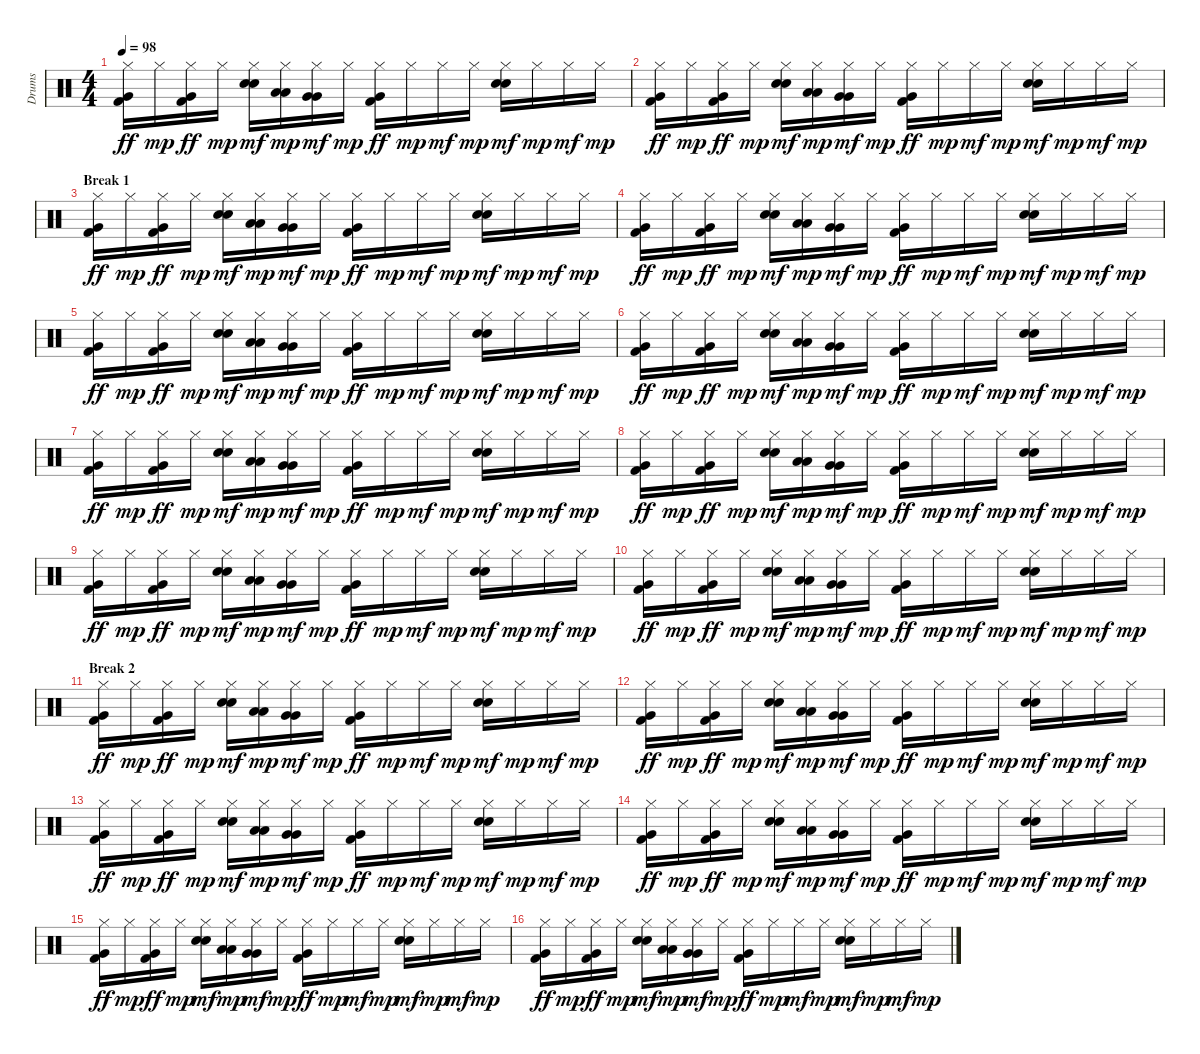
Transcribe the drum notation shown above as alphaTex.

\track ("Drums" "Drums") {instrument percussion}
\staff {score}
\articulation defaults
\ts (4 4)
\tempo 98
\clef neutral
\ks c
("Hi-Hat (closed)" "Very Low Tom (hit)" "Kick (hit) 2").16{dy ff} "Hi-Hat (closed)".16{dy mp} ("Hi-Hat (closed)" "Very Low Tom (hit)" "Kick (hit) 2").16{dy ff} "Hi-Hat (closed)".16{dy mp} ("Hi-Hat (closed)" "Electric Snare (hit)" "Snare (hit) 2").16{dy mf} ("Hi-Hat (closed)" "Low Tom (hit)" "Low Tom (hit)").16{dy mp} ("Hi-Hat (closed)" "Very Low Tom (hit)" "Very Low Tom (hit)").16{dy mf} "Hi-Hat (closed)".16{dy mp} ("Hi-Hat (closed)" "Very Low Tom (hit)" "Kick (hit) 2").16{dy ff} "Hi-Hat (closed)".16{dy mp} "Hi-Hat (closed)".16{dy mf} "Hi-Hat (closed)".16{dy mp} ("Hi-Hat (closed)" "Electric Snare (hit)" "Snare (hit) 2").16{dy mf} "Hi-Hat (closed)".16{dy mp} "Hi-Hat (closed)".16{dy mf} "Hi-Hat (closed)".16{dy mp} |
("Hi-Hat (closed)" "Very Low Tom (hit)" "Kick (hit) 2").16{dy ff} "Hi-Hat (closed)".16{dy mp} ("Hi-Hat (closed)" "Very Low Tom (hit)" "Kick (hit) 2").16{dy ff} "Hi-Hat (closed)".16{dy mp} ("Hi-Hat (closed)" "Electric Snare (hit)" "Snare (hit) 2").16{dy mf} ("Hi-Hat (closed)" "Low Tom (hit)" "Low Tom (hit)").16{dy mp} ("Hi-Hat (closed)" "Very Low Tom (hit)" "Very Low Tom (hit)").16{dy mf} "Hi-Hat (closed)".16{dy mp} ("Hi-Hat (closed)" "Very Low Tom (hit)" "Kick (hit) 2").16{dy ff} "Hi-Hat (closed)".16{dy mp} "Hi-Hat (closed)".16{dy mf} "Hi-Hat (closed)".16{dy mp} ("Hi-Hat (closed)" "Electric Snare (hit)" "Snare (hit) 2").16{dy mf} "Hi-Hat (closed)".16{dy mp} "Hi-Hat (closed)".16{dy mf} "Hi-Hat (closed)".16{dy mp} |
\section ("" "Break 1")
("Hi-Hat (closed)" "Very Low Tom (hit)" "Kick (hit) 2").16{dy ff} "Hi-Hat (closed)".16{dy mp} ("Hi-Hat (closed)" "Very Low Tom (hit)" "Kick (hit) 2").16{dy ff} "Hi-Hat (closed)".16{dy mp} ("Hi-Hat (closed)" "Electric Snare (hit)" "Snare (hit) 2").16{dy mf} ("Hi-Hat (closed)" "Low Tom (hit)" "Low Tom (hit)").16{dy mp} ("Hi-Hat (closed)" "Very Low Tom (hit)" "Very Low Tom (hit)").16{dy mf} "Hi-Hat (closed)".16{dy mp} ("Hi-Hat (closed)" "Very Low Tom (hit)" "Kick (hit) 2").16{dy ff} "Hi-Hat (closed)".16{dy mp} "Hi-Hat (closed)".16{dy mf} "Hi-Hat (closed)".16{dy mp} ("Hi-Hat (closed)" "Electric Snare (hit)" "Snare (hit) 2").16{dy mf} "Hi-Hat (closed)".16{dy mp} "Hi-Hat (closed)".16{dy mf} "Hi-Hat (closed)".16{dy mp} |
("Hi-Hat (closed)" "Very Low Tom (hit)" "Kick (hit) 2").16{dy ff} "Hi-Hat (closed)".16{dy mp} ("Hi-Hat (closed)" "Very Low Tom (hit)" "Kick (hit) 2").16{dy ff} "Hi-Hat (closed)".16{dy mp} ("Hi-Hat (closed)" "Electric Snare (hit)" "Snare (hit) 2").16{dy mf} ("Hi-Hat (closed)" "Low Tom (hit)" "Low Tom (hit)").16{dy mp} ("Hi-Hat (closed)" "Very Low Tom (hit)" "Very Low Tom (hit)").16{dy mf} "Hi-Hat (closed)".16{dy mp} ("Hi-Hat (closed)" "Very Low Tom (hit)" "Kick (hit) 2").16{dy ff} "Hi-Hat (closed)".16{dy mp} "Hi-Hat (closed)".16{dy mf} "Hi-Hat (closed)".16{dy mp} ("Hi-Hat (closed)" "Electric Snare (hit)" "Snare (hit) 2").16{dy mf} "Hi-Hat (closed)".16{dy mp} "Hi-Hat (closed)".16{dy mf} "Hi-Hat (closed)".16{dy mp} |
("Hi-Hat (closed)" "Very Low Tom (hit)" "Kick (hit) 2").16{dy ff} "Hi-Hat (closed)".16{dy mp} ("Hi-Hat (closed)" "Very Low Tom (hit)" "Kick (hit) 2").16{dy ff} "Hi-Hat (closed)".16{dy mp} ("Hi-Hat (closed)" "Electric Snare (hit)" "Snare (hit) 2").16{dy mf} ("Hi-Hat (closed)" "Low Tom (hit)" "Low Tom (hit)").16{dy mp} ("Hi-Hat (closed)" "Very Low Tom (hit)" "Very Low Tom (hit)").16{dy mf} "Hi-Hat (closed)".16{dy mp} ("Hi-Hat (closed)" "Very Low Tom (hit)" "Kick (hit) 2").16{dy ff} "Hi-Hat (closed)".16{dy mp} "Hi-Hat (closed)".16{dy mf} "Hi-Hat (closed)".16{dy mp} ("Hi-Hat (closed)" "Electric Snare (hit)" "Snare (hit) 2").16{dy mf} "Hi-Hat (closed)".16{dy mp} "Hi-Hat (closed)".16{dy mf} "Hi-Hat (closed)".16{dy mp} |
("Hi-Hat (closed)" "Very Low Tom (hit)" "Kick (hit) 2").16{dy ff} "Hi-Hat (closed)".16{dy mp} ("Hi-Hat (closed)" "Very Low Tom (hit)" "Kick (hit) 2").16{dy ff} "Hi-Hat (closed)".16{dy mp} ("Hi-Hat (closed)" "Electric Snare (hit)" "Snare (hit) 2").16{dy mf} ("Hi-Hat (closed)" "Low Tom (hit)" "Low Tom (hit)").16{dy mp} ("Hi-Hat (closed)" "Very Low Tom (hit)" "Very Low Tom (hit)").16{dy mf} "Hi-Hat (closed)".16{dy mp} ("Hi-Hat (closed)" "Very Low Tom (hit)" "Kick (hit) 2").16{dy ff} "Hi-Hat (closed)".16{dy mp} "Hi-Hat (closed)".16{dy mf} "Hi-Hat (closed)".16{dy mp} ("Hi-Hat (closed)" "Electric Snare (hit)" "Snare (hit) 2").16{dy mf} "Hi-Hat (closed)".16{dy mp} "Hi-Hat (closed)".16{dy mf} "Hi-Hat (closed)".16{dy mp} |
("Hi-Hat (closed)" "Very Low Tom (hit)" "Kick (hit) 2").16{dy ff} "Hi-Hat (closed)".16{dy mp} ("Hi-Hat (closed)" "Very Low Tom (hit)" "Kick (hit) 2").16{dy ff} "Hi-Hat (closed)".16{dy mp} ("Hi-Hat (closed)" "Electric Snare (hit)" "Snare (hit) 2").16{dy mf} ("Hi-Hat (closed)" "Low Tom (hit)" "Low Tom (hit)").16{dy mp} ("Hi-Hat (closed)" "Very Low Tom (hit)" "Very Low Tom (hit)").16{dy mf} "Hi-Hat (closed)".16{dy mp} ("Hi-Hat (closed)" "Very Low Tom (hit)" "Kick (hit) 2").16{dy ff} "Hi-Hat (closed)".16{dy mp} "Hi-Hat (closed)".16{dy mf} "Hi-Hat (closed)".16{dy mp} ("Hi-Hat (closed)" "Electric Snare (hit)" "Snare (hit) 2").16{dy mf} "Hi-Hat (closed)".16{dy mp} "Hi-Hat (closed)".16{dy mf} "Hi-Hat (closed)".16{dy mp} |
("Hi-Hat (closed)" "Very Low Tom (hit)" "Kick (hit) 2").16{dy ff} "Hi-Hat (closed)".16{dy mp} ("Hi-Hat (closed)" "Very Low Tom (hit)" "Kick (hit) 2").16{dy ff} "Hi-Hat (closed)".16{dy mp} ("Hi-Hat (closed)" "Electric Snare (hit)" "Snare (hit) 2").16{dy mf} ("Hi-Hat (closed)" "Low Tom (hit)" "Low Tom (hit)").16{dy mp} ("Hi-Hat (closed)" "Very Low Tom (hit)" "Very Low Tom (hit)").16{dy mf} "Hi-Hat (closed)".16{dy mp} ("Hi-Hat (closed)" "Very Low Tom (hit)" "Kick (hit) 2").16{dy ff} "Hi-Hat (closed)".16{dy mp} "Hi-Hat (closed)".16{dy mf} "Hi-Hat (closed)".16{dy mp} ("Hi-Hat (closed)" "Electric Snare (hit)" "Snare (hit) 2").16{dy mf} "Hi-Hat (closed)".16{dy mp} "Hi-Hat (closed)".16{dy mf} "Hi-Hat (closed)".16{dy mp} |
("Hi-Hat (closed)" "Very Low Tom (hit)" "Kick (hit) 2").16{dy ff} "Hi-Hat (closed)".16{dy mp} ("Hi-Hat (closed)" "Very Low Tom (hit)" "Kick (hit) 2").16{dy ff} "Hi-Hat (closed)".16{dy mp} ("Hi-Hat (closed)" "Electric Snare (hit)" "Snare (hit) 2").16{dy mf} ("Hi-Hat (closed)" "Low Tom (hit)" "Low Tom (hit)").16{dy mp} ("Hi-Hat (closed)" "Very Low Tom (hit)" "Very Low Tom (hit)").16{dy mf} "Hi-Hat (closed)".16{dy mp} ("Hi-Hat (closed)" "Very Low Tom (hit)" "Kick (hit) 2").16{dy ff} "Hi-Hat (closed)".16{dy mp} "Hi-Hat (closed)".16{dy mf} "Hi-Hat (closed)".16{dy mp} ("Hi-Hat (closed)" "Electric Snare (hit)" "Snare (hit) 2").16{dy mf} "Hi-Hat (closed)".16{dy mp} "Hi-Hat (closed)".16{dy mf} "Hi-Hat (closed)".16{dy mp} |
("Hi-Hat (closed)" "Very Low Tom (hit)" "Kick (hit) 2").16{dy ff} "Hi-Hat (closed)".16{dy mp} ("Hi-Hat (closed)" "Very Low Tom (hit)" "Kick (hit) 2").16{dy ff} "Hi-Hat (closed)".16{dy mp} ("Hi-Hat (closed)" "Electric Snare (hit)" "Snare (hit) 2").16{dy mf} ("Hi-Hat (closed)" "Low Tom (hit)" "Low Tom (hit)").16{dy mp} ("Hi-Hat (closed)" "Very Low Tom (hit)" "Very Low Tom (hit)").16{dy mf} "Hi-Hat (closed)".16{dy mp} ("Hi-Hat (closed)" "Very Low Tom (hit)" "Kick (hit) 2").16{dy ff} "Hi-Hat (closed)".16{dy mp} "Hi-Hat (closed)".16{dy mf} "Hi-Hat (closed)".16{dy mp} ("Hi-Hat (closed)" "Electric Snare (hit)" "Snare (hit) 2").16{dy mf} "Hi-Hat (closed)".16{dy mp} "Hi-Hat (closed)".16{dy mf} "Hi-Hat (closed)".16{dy mp} |
\section ("" "Break 2")
("Hi-Hat (closed)" "Very Low Tom (hit)" "Kick (hit) 2").16{dy ff} "Hi-Hat (closed)".16{dy mp} ("Hi-Hat (closed)" "Very Low Tom (hit)" "Kick (hit) 2").16{dy ff} "Hi-Hat (closed)".16{dy mp} ("Hi-Hat (closed)" "Electric Snare (hit)" "Snare (hit) 2").16{dy mf} ("Hi-Hat (closed)" "Low Tom (hit)" "Low Tom (hit)").16{dy mp} ("Hi-Hat (closed)" "Very Low Tom (hit)" "Very Low Tom (hit)").16{dy mf} "Hi-Hat (closed)".16{dy mp} ("Hi-Hat (closed)" "Very Low Tom (hit)" "Kick (hit) 2").16{dy ff} "Hi-Hat (closed)".16{dy mp} "Hi-Hat (closed)".16{dy mf} "Hi-Hat (closed)".16{dy mp} ("Hi-Hat (closed)" "Electric Snare (hit)" "Snare (hit) 2").16{dy mf} "Hi-Hat (closed)".16{dy mp} "Hi-Hat (closed)".16{dy mf} "Hi-Hat (closed)".16{dy mp} |
("Hi-Hat (closed)" "Very Low Tom (hit)" "Kick (hit) 2").16{dy ff} "Hi-Hat (closed)".16{dy mp} ("Hi-Hat (closed)" "Very Low Tom (hit)" "Kick (hit) 2").16{dy ff} "Hi-Hat (closed)".16{dy mp} ("Hi-Hat (closed)" "Electric Snare (hit)" "Snare (hit) 2").16{dy mf} ("Hi-Hat (closed)" "Low Tom (hit)" "Low Tom (hit)").16{dy mp} ("Hi-Hat (closed)" "Very Low Tom (hit)" "Very Low Tom (hit)").16{dy mf} "Hi-Hat (closed)".16{dy mp} ("Hi-Hat (closed)" "Very Low Tom (hit)" "Kick (hit) 2").16{dy ff} "Hi-Hat (closed)".16{dy mp} "Hi-Hat (closed)".16{dy mf} "Hi-Hat (closed)".16{dy mp} ("Hi-Hat (closed)" "Electric Snare (hit)" "Snare (hit) 2").16{dy mf} "Hi-Hat (closed)".16{dy mp} "Hi-Hat (closed)".16{dy mf} "Hi-Hat (closed)".16{dy mp} |
("Hi-Hat (closed)" "Very Low Tom (hit)" "Kick (hit) 2").16{dy ff} "Hi-Hat (closed)".16{dy mp} ("Hi-Hat (closed)" "Very Low Tom (hit)" "Kick (hit) 2").16{dy ff} "Hi-Hat (closed)".16{dy mp} ("Hi-Hat (closed)" "Electric Snare (hit)" "Snare (hit) 2").16{dy mf} ("Hi-Hat (closed)" "Low Tom (hit)" "Low Tom (hit)").16{dy mp} ("Hi-Hat (closed)" "Very Low Tom (hit)" "Very Low Tom (hit)").16{dy mf} "Hi-Hat (closed)".16{dy mp} ("Hi-Hat (closed)" "Very Low Tom (hit)" "Kick (hit) 2").16{dy ff} "Hi-Hat (closed)".16{dy mp} "Hi-Hat (closed)".16{dy mf} "Hi-Hat (closed)".16{dy mp} ("Hi-Hat (closed)" "Electric Snare (hit)" "Snare (hit) 2").16{dy mf} "Hi-Hat (closed)".16{dy mp} "Hi-Hat (closed)".16{dy mf} "Hi-Hat (closed)".16{dy mp} |
("Hi-Hat (closed)" "Very Low Tom (hit)" "Kick (hit) 2").16{dy ff} "Hi-Hat (closed)".16{dy mp} ("Hi-Hat (closed)" "Very Low Tom (hit)" "Kick (hit) 2").16{dy ff} "Hi-Hat (closed)".16{dy mp} ("Hi-Hat (closed)" "Electric Snare (hit)" "Snare (hit) 2").16{dy mf} ("Hi-Hat (closed)" "Low Tom (hit)" "Low Tom (hit)").16{dy mp} ("Hi-Hat (closed)" "Very Low Tom (hit)" "Very Low Tom (hit)").16{dy mf} "Hi-Hat (closed)".16{dy mp} ("Hi-Hat (closed)" "Very Low Tom (hit)" "Kick (hit) 2").16{dy ff} "Hi-Hat (closed)".16{dy mp} "Hi-Hat (closed)".16{dy mf} "Hi-Hat (closed)".16{dy mp} ("Hi-Hat (closed)" "Electric Snare (hit)" "Snare (hit) 2").16{dy mf} "Hi-Hat (closed)".16{dy mp} "Hi-Hat (closed)".16{dy mf} "Hi-Hat (closed)".16{dy mp} |
("Hi-Hat (closed)" "Very Low Tom (hit)" "Kick (hit) 2").16{dy ff} "Hi-Hat (closed)".16{dy mp} ("Hi-Hat (closed)" "Very Low Tom (hit)" "Kick (hit) 2").16{dy ff} "Hi-Hat (closed)".16{dy mp} ("Hi-Hat (closed)" "Electric Snare (hit)" "Snare (hit) 2").16{dy mf} ("Hi-Hat (closed)" "Low Tom (hit)" "Low Tom (hit)").16{dy mp} ("Hi-Hat (closed)" "Very Low Tom (hit)" "Very Low Tom (hit)").16{dy mf} "Hi-Hat (closed)".16{dy mp} ("Hi-Hat (closed)" "Very Low Tom (hit)" "Kick (hit) 2").16{dy ff} "Hi-Hat (closed)".16{dy mp} "Hi-Hat (closed)".16{dy mf} "Hi-Hat (closed)".16{dy mp} ("Hi-Hat (closed)" "Electric Snare (hit)" "Snare (hit) 2").16{dy mf} "Hi-Hat (closed)".16{dy mp} "Hi-Hat (closed)".16{dy mf} "Hi-Hat (closed)".16{dy mp} |
("Hi-Hat (closed)" "Very Low Tom (hit)" "Kick (hit) 2").16{dy ff} "Hi-Hat (closed)".16{dy mp} ("Hi-Hat (closed)" "Very Low Tom (hit)" "Kick (hit) 2").16{dy ff} "Hi-Hat (closed)".16{dy mp} ("Hi-Hat (closed)" "Electric Snare (hit)" "Snare (hit) 2").16{dy mf} ("Hi-Hat (closed)" "Low Tom (hit)" "Low Tom (hit)").16{dy mp} ("Hi-Hat (closed)" "Very Low Tom (hit)" "Very Low Tom (hit)").16{dy mf} "Hi-Hat (closed)".16{dy mp} ("Hi-Hat (closed)" "Very Low Tom (hit)" "Kick (hit) 2").16{dy ff} "Hi-Hat (closed)".16{dy mp} "Hi-Hat (closed)".16{dy mf} "Hi-Hat (closed)".16{dy mp} ("Hi-Hat (closed)" "Electric Snare (hit)" "Snare (hit) 2").16{dy mf} "Hi-Hat (closed)".16{dy mp} "Hi-Hat (closed)".16{dy mf} "Hi-Hat (closed)".16{dy mp}
